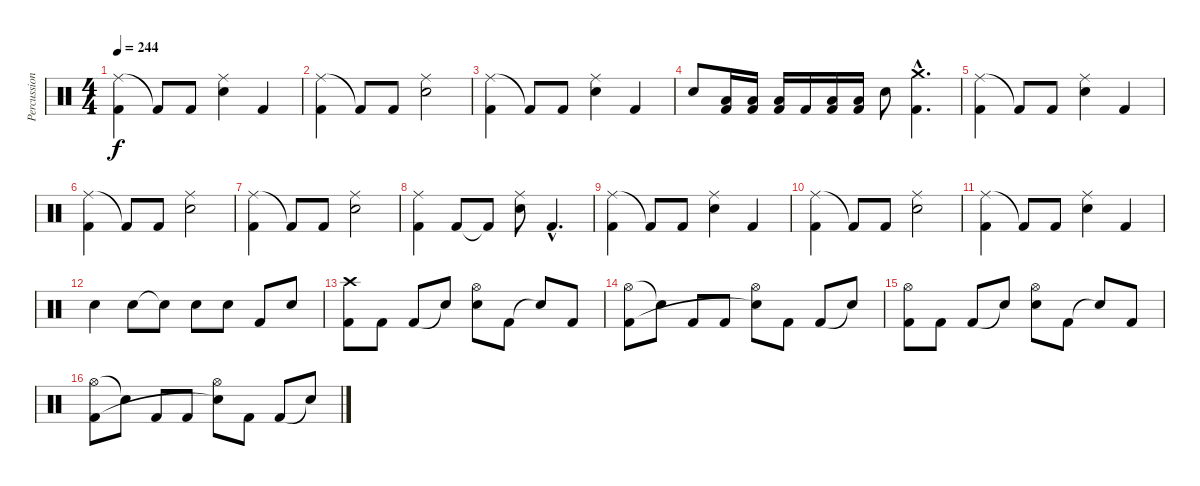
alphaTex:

\track ("Percussions" "Percussion") {instrument percussion}
\staff {score}
\articulation defaults
\ts (4 4)
\tempo 244
\clef neutral
\ks c
("Ride (middle)" "Kick (hit) 2").4{dy f} "Kick (hit) 2"{t}.8 "Kick (hit) 2".8 ("Ride (middle)" "Electric Snare (hit)").4 "Kick (hit) 2".4 |
("Ride (middle)" "Kick (hit) 2").4 "Kick (hit) 2"{t}.8 "Kick (hit) 2".8 ("Ride (middle)" "Electric Snare (hit)").2 |
("Ride (middle)" "Kick (hit) 2").4 "Kick (hit) 2"{t}.8 "Kick (hit) 2".8 ("Ride (middle)" "Electric Snare (hit)").4 "Kick (hit) 2".4 |
"Electric Snare (hit)".8 ("Low Floor Tom (hit)" "Kick (hit) 2").16 ("Low Floor Tom (hit)" "Kick (hit) 2").16 ("Low Floor Tom (hit)" "Kick (hit) 2").16 "Kick (hit) 2".16 ("Low Floor Tom (hit)" "Kick (hit) 2").16 ("Low Floor Tom (hit)" "Kick (hit) 2").16 "Electric Snare (hit)".8 ("Crash medium (hit)"{hac} "Kick (hit) 2"{hac}).4{d} |
("Ride (middle)" "Kick (hit) 2").4 "Kick (hit) 2"{t}.8 "Kick (hit) 2".8 ("Ride (middle)" "Electric Snare (hit)").4 "Kick (hit) 2".4 |
("Ride (middle)" "Kick (hit) 2").4 "Kick (hit) 2"{t}.8 "Kick (hit) 2".8 ("Ride (middle)" "Electric Snare (hit)").2 |
("Ride (middle)" "Kick (hit) 2").4 "Kick (hit) 2"{t}.8 "Kick (hit) 2".8 ("Ride (middle)" "Electric Snare (hit)").2 |
("Ride (middle)" "Kick (hit) 2").4 "Kick (hit) 2".8 "Kick (hit) 2"{t}.8 ("Ride (middle)" "Electric Snare (hit)").8 "Kick (hit) 2"{hac}.4{d} |
("Ride (middle)" "Kick (hit) 2").4 "Kick (hit) 2"{t}.8 "Kick (hit) 2".8 ("Ride (middle)" "Electric Snare (hit)").4 "Kick (hit) 2".4 |
("Ride (middle)" "Kick (hit) 2").4 "Kick (hit) 2"{t}.8 "Kick (hit) 2".8 ("Ride (middle)" "Electric Snare (hit)").2 |
("Ride (middle)" "Kick (hit) 2").4 "Kick (hit) 2"{t}.8 "Kick (hit) 2".8 ("Ride (middle)" "Electric Snare (hit)").4 "Kick (hit) 2".4 |
"Electric Snare (hit)".4 "Electric Snare (hit)".8 "Snare (hit)"{t}.8 "Electric Snare (hit)".8 "Electric Snare (hit)".8 "Kick (hit) 2".8 "Electric Snare (hit)".8 |
("Crash high (hit)" "Kick (hit) 2").8 "Kick (hit) 2".8 "Kick (hit) 2".8 "Snare (hit)"{t}.8 ("Hi-Hat (open)" "Electric Snare (hit)").8 "Kick (hit) 2".8 "Snare (hit)"{t}.8 "Kick (hit) 2".8 |
("Hi-Hat (open)" "Kick (hit) 2").8 "Snare (hit)"{t}.8 "Kick (hit) 2".8 "Kick (hit) 2".8 ("Hi-Hat (open)" "Snare (hit)"{t}).8 "Kick (hit) 2".8 "Kick (hit) 2".8 "Snare (hit)"{t}.8 |
("Hi-Hat (open)" "Kick (hit) 2").8 "Kick (hit) 2".8 "Kick (hit) 2".8 "Snare (hit)"{t}.8 ("Hi-Hat (open)" "Electric Snare (hit)").8 "Kick (hit) 2".8 "Snare (hit)"{t}.8 "Kick (hit) 2".8 |
("Hi-Hat (open)" "Kick (hit) 2").8 "Snare (hit)"{t}.8 "Kick (hit) 2".8 "Kick (hit) 2".8 ("Hi-Hat (open)" "Snare (hit)"{t}).8 "Kick (hit) 2".8 "Kick (hit) 2".8 "Snare (hit)"{t}.8
